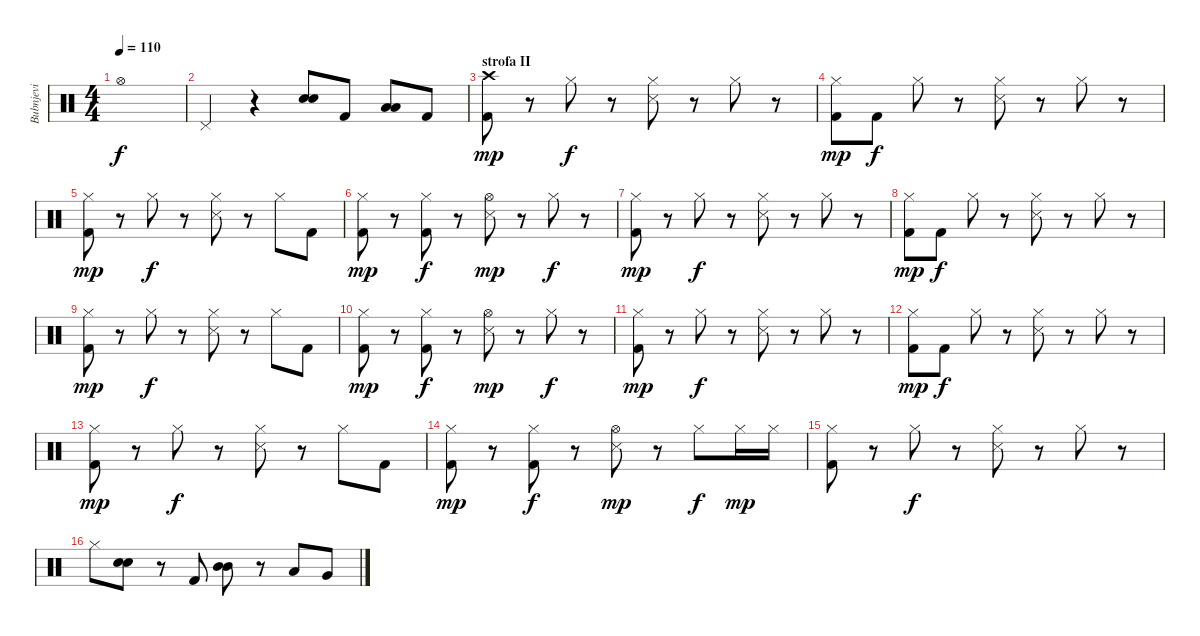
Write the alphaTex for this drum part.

\track ("Bubnjevi" "Bubnjevi") {instrument percussion}
\staff {score}
\articulation defaults
\ts (4 4)
\tempo 110
\clef neutral
\ks c "Hi-Hat (open)".1{dy f}
|
"Pedal Hi-Hat (hit)".4 r.4 ("Electric Snare (hit)" "Electric Snare (hit)").8{bd 120} "Kick (hit) 2".8 ("Low Tom (hit)" "Low Tom (hit)").8{bd 120} "Kick (hit) 2".8 |
\section ("" "strofa II")
("Crash high (hit)" "Kick (hit) 2").8{dy mp} r.8 "Hi-Hat (closed)".8{dy f} r.8 ("Hi-Hat (closed)" "Snare (side stick) 3").8 r.8 "Hi-Hat (closed)".8 r.8 |
("Hi-Hat (closed)" "Kick (hit) 2").8{dy mp} "Kick (hit) 2".8{dy f} "Hi-Hat (closed)".8 r.8 ("Hi-Hat (closed)" "Snare (side stick) 3").8 r.8 "Hi-Hat (closed)".8 r.8 |
("Hi-Hat (closed)" "Kick (hit) 2").8{dy mp} r.8 "Hi-Hat (closed)".8{dy f} r.8 ("Hi-Hat (closed)" "Snare (side stick) 3").8 r.8 "Hi-Hat (closed)".8 "Kick (hit) 2".8 |
("Hi-Hat (closed)" "Kick (hit) 2").8{dy mp} r.8 ("Hi-Hat (closed)" "Kick (hit) 2").8{dy f} r.8 ("Hi-Hat (open)" "Snare (side stick) 3").8{dy mp} r.8 "Hi-Hat (closed)".8{dy f} r.8 |
("Hi-Hat (closed)" "Kick (hit) 2").8{dy mp} r.8 "Hi-Hat (closed)".8{dy f} r.8 ("Hi-Hat (closed)" "Snare (side stick) 3").8 r.8 "Hi-Hat (closed)".8 r.8 |
("Hi-Hat (closed)" "Kick (hit) 2").8{dy mp} "Kick (hit) 2".8{dy f} "Hi-Hat (closed)".8 r.8 ("Hi-Hat (closed)" "Snare (side stick) 3").8 r.8 "Hi-Hat (closed)".8 r.8 |
("Hi-Hat (closed)" "Kick (hit) 2").8{dy mp} r.8 "Hi-Hat (closed)".8{dy f} r.8 ("Hi-Hat (closed)" "Snare (side stick) 3").8 r.8 "Hi-Hat (closed)".8 "Kick (hit) 2".8 |
("Hi-Hat (closed)" "Kick (hit) 2").8{dy mp} r.8 ("Hi-Hat (closed)" "Kick (hit) 2").8{dy f} r.8 ("Hi-Hat (open)" "Snare (side stick) 3").8{dy mp} r.8 "Hi-Hat (closed)".8{dy f} r.8 |
("Hi-Hat (closed)" "Kick (hit) 2").8{dy mp} r.8 "Hi-Hat (closed)".8{dy f} r.8 ("Hi-Hat (closed)" "Snare (side stick) 3").8 r.8 "Hi-Hat (closed)".8 r.8 |
("Hi-Hat (closed)" "Kick (hit) 2").8{dy mp} "Kick (hit) 2".8{dy f} "Hi-Hat (closed)".8 r.8 ("Hi-Hat (closed)" "Snare (side stick) 3").8 r.8 "Hi-Hat (closed)".8 r.8 |
("Hi-Hat (closed)" "Kick (hit) 2").8{dy mp} r.8 "Hi-Hat (closed)".8{dy f} r.8 ("Hi-Hat (closed)" "Snare (side stick) 3").8 r.8 "Hi-Hat (closed)".8 "Kick (hit) 2".8 |
("Hi-Hat (closed)" "Kick (hit) 2").8{dy mp} r.8 ("Hi-Hat (closed)" "Kick (hit) 2").8{dy f} r.8 ("Hi-Hat (open)" "Snare (side stick) 3").8{dy mp} r.8 "Hi-Hat (closed)".8{dy f} "Hi-Hat (closed)".16{dy mp} "Hi-Hat (closed)".16 |
("Hi-Hat (closed)" "Kick (hit) 2").8 r.8 "Hi-Hat (closed)".8{dy f} r.8 ("Hi-Hat (closed)" "Snare (side stick) 3").8 r.8 "Hi-Hat (closed)".8 r.8 |
"Hi-Hat (closed)".8 ("Electric Snare (hit)" "Electric Snare (hit)").8{bd 60} r.8 "Kick (hit) 2".8 ("Mid Tom (hit)" "Mid Tom (hit)").8{bd 120} r.8 "Low Tom (hit)".8 "Very Low Tom (hit)".8
